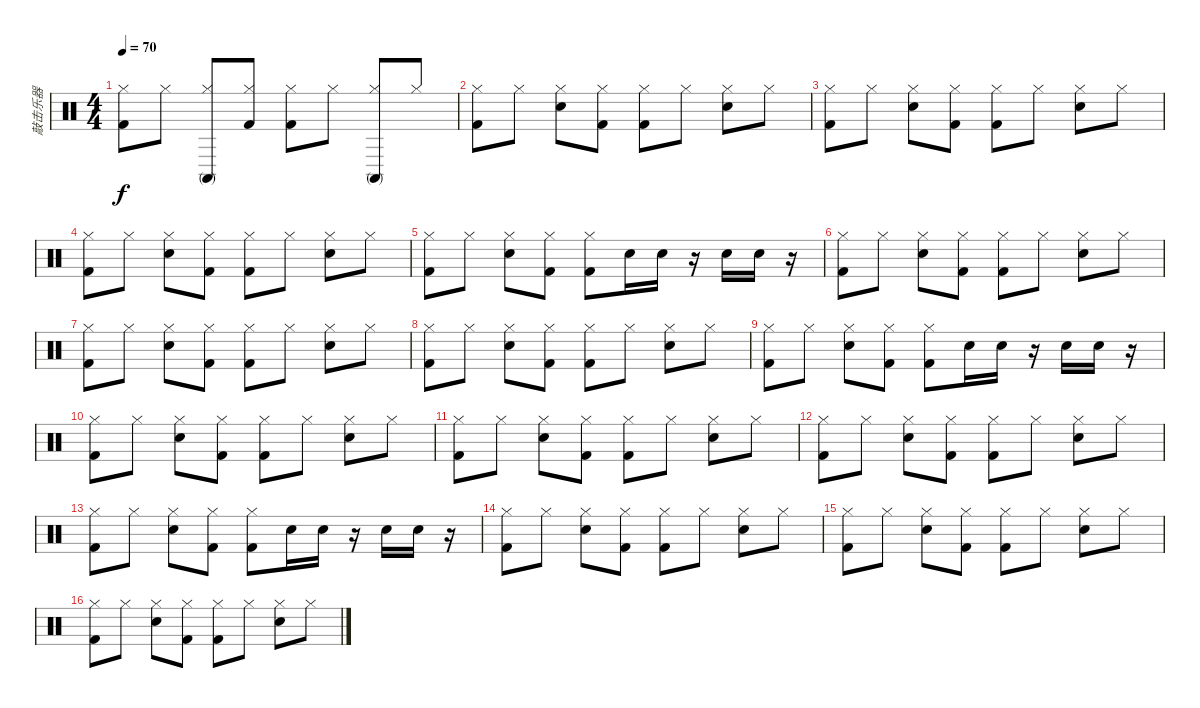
\track ("敲击乐器" "敲击乐器") {instrument percussion}
\staff {score}
\articulation defaults
\ts (4 4)
\tempo 70
\clef neutral
\ks c
("Hi-Hat (closed)" "Kick (hit) 2").8{dy f} "Hi-Hat (closed)".8 ("Hi-Hat (closed)" "Conga high (mute)").8 ("Hi-Hat (closed)" "Kick (hit) 2").8 ("Hi-Hat (closed)" "Kick (hit) 2").8 "Hi-Hat (closed)".8 ("Hi-Hat (closed)" "Conga high (mute)").8 "Hi-Hat (closed)".8 |
("Hi-Hat (closed)" "Kick (hit) 2").8 "Hi-Hat (closed)".8 ("Hi-Hat (closed)" "Electric Snare (hit)").8 ("Hi-Hat (closed)" "Kick (hit) 2").8 ("Hi-Hat (closed)" "Kick (hit) 2").8 "Hi-Hat (closed)".8 ("Hi-Hat (closed)" "Electric Snare (hit)").8 "Hi-Hat (closed)".8 |
("Hi-Hat (closed)" "Kick (hit) 2").8 "Hi-Hat (closed)".8 ("Hi-Hat (closed)" "Electric Snare (hit)").8 ("Hi-Hat (closed)" "Kick (hit) 2").8 ("Hi-Hat (closed)" "Kick (hit) 2").8 "Hi-Hat (closed)".8 ("Hi-Hat (closed)" "Electric Snare (hit)").8 "Hi-Hat (closed)".8 |
("Hi-Hat (closed)" "Kick (hit) 2").8 "Hi-Hat (closed)".8 ("Hi-Hat (closed)" "Electric Snare (hit)").8 ("Hi-Hat (closed)" "Kick (hit) 2").8 ("Hi-Hat (closed)" "Kick (hit) 2").8 "Hi-Hat (closed)".8 ("Hi-Hat (closed)" "Electric Snare (hit)").8 "Hi-Hat (closed)".8 |
("Hi-Hat (closed)" "Kick (hit) 2").8 "Hi-Hat (closed)".8 ("Hi-Hat (closed)" "Electric Snare (hit)").8 ("Hi-Hat (closed)" "Kick (hit) 2").8 ("Hi-Hat (closed)" "Kick (hit) 2").8 "Electric Snare (hit)".16 "Electric Snare (hit)".16 r.16 "Electric Snare (hit)".16 "Electric Snare (hit)".16 r.16 |
("Hi-Hat (closed)" "Kick (hit) 2").8 "Hi-Hat (closed)".8 ("Hi-Hat (closed)" "Electric Snare (hit)").8 ("Hi-Hat (closed)" "Kick (hit) 2").8 ("Hi-Hat (closed)" "Kick (hit) 2").8 "Hi-Hat (closed)".8 ("Hi-Hat (closed)" "Electric Snare (hit)").8 "Hi-Hat (closed)".8 |
("Hi-Hat (closed)" "Kick (hit) 2").8 "Hi-Hat (closed)".8 ("Hi-Hat (closed)" "Electric Snare (hit)").8 ("Hi-Hat (closed)" "Kick (hit) 2").8 ("Hi-Hat (closed)" "Kick (hit) 2").8 "Hi-Hat (closed)".8 ("Hi-Hat (closed)" "Electric Snare (hit)").8 "Hi-Hat (closed)".8 |
("Hi-Hat (closed)" "Kick (hit) 2").8 "Hi-Hat (closed)".8 ("Hi-Hat (closed)" "Electric Snare (hit)").8 ("Hi-Hat (closed)" "Kick (hit) 2").8 ("Hi-Hat (closed)" "Kick (hit) 2").8 "Hi-Hat (closed)".8 ("Hi-Hat (closed)" "Electric Snare (hit)").8 "Hi-Hat (closed)".8 |
("Hi-Hat (closed)" "Kick (hit) 2").8 "Hi-Hat (closed)".8 ("Hi-Hat (closed)" "Electric Snare (hit)").8 ("Hi-Hat (closed)" "Kick (hit) 2").8 ("Hi-Hat (closed)" "Kick (hit) 2").8 "Electric Snare (hit)".16 "Electric Snare (hit)".16 r.16 "Electric Snare (hit)".16 "Electric Snare (hit)".16 r.16 |
("Hi-Hat (closed)" "Kick (hit) 2").8 "Hi-Hat (closed)".8 ("Hi-Hat (closed)" "Electric Snare (hit)").8 ("Hi-Hat (closed)" "Kick (hit) 2").8 ("Hi-Hat (closed)" "Kick (hit) 2").8 "Hi-Hat (closed)".8 ("Hi-Hat (closed)" "Electric Snare (hit)").8 "Hi-Hat (closed)".8 |
("Hi-Hat (closed)" "Kick (hit) 2").8 "Hi-Hat (closed)".8 ("Hi-Hat (closed)" "Electric Snare (hit)").8 ("Hi-Hat (closed)" "Kick (hit) 2").8 ("Hi-Hat (closed)" "Kick (hit) 2").8 "Hi-Hat (closed)".8 ("Hi-Hat (closed)" "Electric Snare (hit)").8 "Hi-Hat (closed)".8 |
("Hi-Hat (closed)" "Kick (hit) 2").8 "Hi-Hat (closed)".8 ("Hi-Hat (closed)" "Electric Snare (hit)").8 ("Hi-Hat (closed)" "Kick (hit) 2").8 ("Hi-Hat (closed)" "Kick (hit) 2").8 "Hi-Hat (closed)".8 ("Hi-Hat (closed)" "Electric Snare (hit)").8 "Hi-Hat (closed)".8 |
("Hi-Hat (closed)" "Kick (hit) 2").8 "Hi-Hat (closed)".8 ("Hi-Hat (closed)" "Electric Snare (hit)").8 ("Hi-Hat (closed)" "Kick (hit) 2").8 ("Hi-Hat (closed)" "Kick (hit) 2").8 "Electric Snare (hit)".16 "Electric Snare (hit)".16 r.16 "Electric Snare (hit)".16 "Electric Snare (hit)".16 r.16 |
("Hi-Hat (closed)" "Kick (hit) 2").8 "Hi-Hat (closed)".8 ("Hi-Hat (closed)" "Electric Snare (hit)").8 ("Hi-Hat (closed)" "Kick (hit) 2").8 ("Hi-Hat (closed)" "Kick (hit) 2").8 "Hi-Hat (closed)".8 ("Hi-Hat (closed)" "Electric Snare (hit)").8 "Hi-Hat (closed)".8 |
("Hi-Hat (closed)" "Kick (hit) 2").8 "Hi-Hat (closed)".8 ("Hi-Hat (closed)" "Electric Snare (hit)").8 ("Hi-Hat (closed)" "Kick (hit) 2").8 ("Hi-Hat (closed)" "Kick (hit) 2").8 "Hi-Hat (closed)".8 ("Hi-Hat (closed)" "Electric Snare (hit)").8 "Hi-Hat (closed)".8 |
("Hi-Hat (closed)" "Kick (hit) 2").8 "Hi-Hat (closed)".8 ("Hi-Hat (closed)" "Electric Snare (hit)").8 ("Hi-Hat (closed)" "Kick (hit) 2").8 ("Hi-Hat (closed)" "Kick (hit) 2").8 "Hi-Hat (closed)".8 ("Hi-Hat (closed)" "Electric Snare (hit)").8 "Hi-Hat (closed)".8
